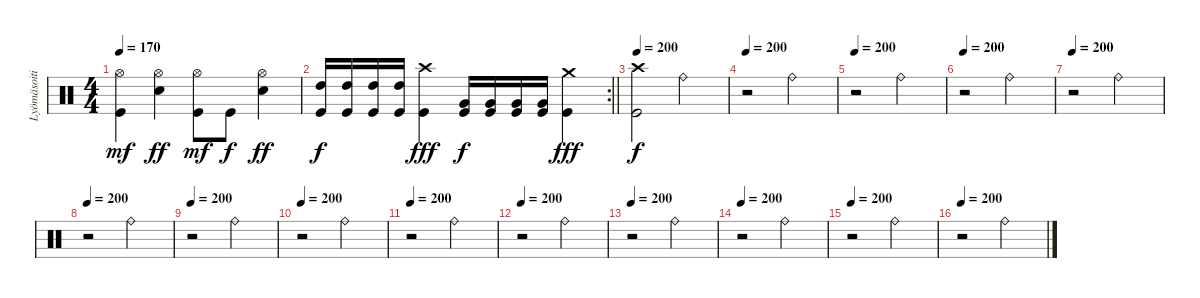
\track ("Lyömäsoitin" "Lyömäsoiti") {instrument percussion}
\staff {score}
\articulation defaults
\ts (4 4)
\tempo 170
\clef neutral
\ks c
("Hi-Hat (open)" "Kick (hit)").4{dy mf} ("Hi-Hat (open)" "Electric Snare (hit)").4{dy ff} ("Hi-Hat (open)" "Kick (hit)").8{dy mf} "Kick (hit)".8{dy f} ("Hi-Hat (open)" "Electric Snare (hit)").4{dy ff} |
\rc 2
\barLineRight lightlight
("High Tom (hit)" "Kick (hit)").16{dy f} ("High Tom (hit)" "Kick (hit)").16 ("High Tom (hit)" "Kick (hit)").16 ("High Tom (hit)" "Kick (hit)").16 ("Crash high (hit)" "Kick (hit)").4{dy fff} ("Very Low Tom (hit)" "Kick (hit)").16{dy f} ("Very Low Tom (hit)" "Kick (hit)").16 ("Very Low Tom (hit)" "Kick (hit)").16 ("Very Low Tom (hit)" "Kick (hit)").16 ("Crash medium (hit)" "Kick (hit)").4{dy fff} |
\tempo 200
("Crash high (hit)" "Kick (hit)").2{dy f} "Ride (bell)".2 |
\tempo 200
r.2 "Ride (bell)".2 |
\tempo 200
r.2 "Ride (bell)".2 |
\tempo 200
r.2 "Ride (bell)".2 |
\tempo 200
r.2 "Ride (bell)".2 |
\tempo 200
r.2 "Ride (bell)".2 |
\tempo 200
r.2 "Ride (bell)".2 |
\tempo 200
r.2 "Ride (bell)".2 |
\tempo 200
r.2 "Ride (bell)".2 |
\tempo 200
r.2 "Ride (bell)".2 |
\tempo 200
r.2 "Ride (bell)".2 |
\tempo 200
r.2 "Ride (bell)".2 |
\tempo 200
r.2 "Ride (bell)".2 |
\tempo 200
r.2 "Ride (bell)".2
